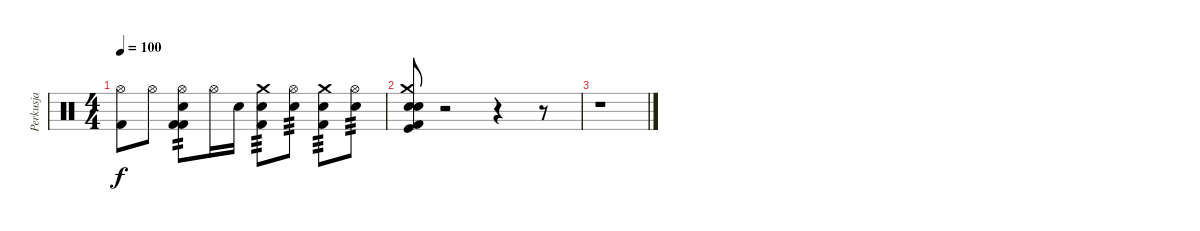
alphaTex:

\track ("Perkusja" "Perkusja") {instrument percussion}
\staff {score}
\articulation defaults
\ts (4 4)
\tempo 100
\clef neutral
\ks c
("Hi-Hat (open)" "Kick (hit) 2").8{dy f} "Hi-Hat (open)".8 ("Hi-Hat (open)" "Electric Snare (hit)" "Kick (hit) 2" "Kick (hit) 2").8{tp 2} "Hi-Hat (open)".16 "Electric Snare (hit)".16 ("Crash medium (hit)" "Snare (hit) 2" "Kick (hit) 2").8{tp 3} ("Hi-Hat (open)" "Snare (hit) 2").8{tp 3} ("Crash medium (hit)" "Electric Snare (hit)" "Kick (hit) 2").8{tp 3} ("Hi-Hat (open)" "Electric Snare (hit)").8{tp 3} |
("Crash medium (hit)" "Snare (hit) 2" "Electric Snare (hit)" "Kick (hit)" "Kick (hit) 2").8 r.2 r.4 r.8 |
r.1
